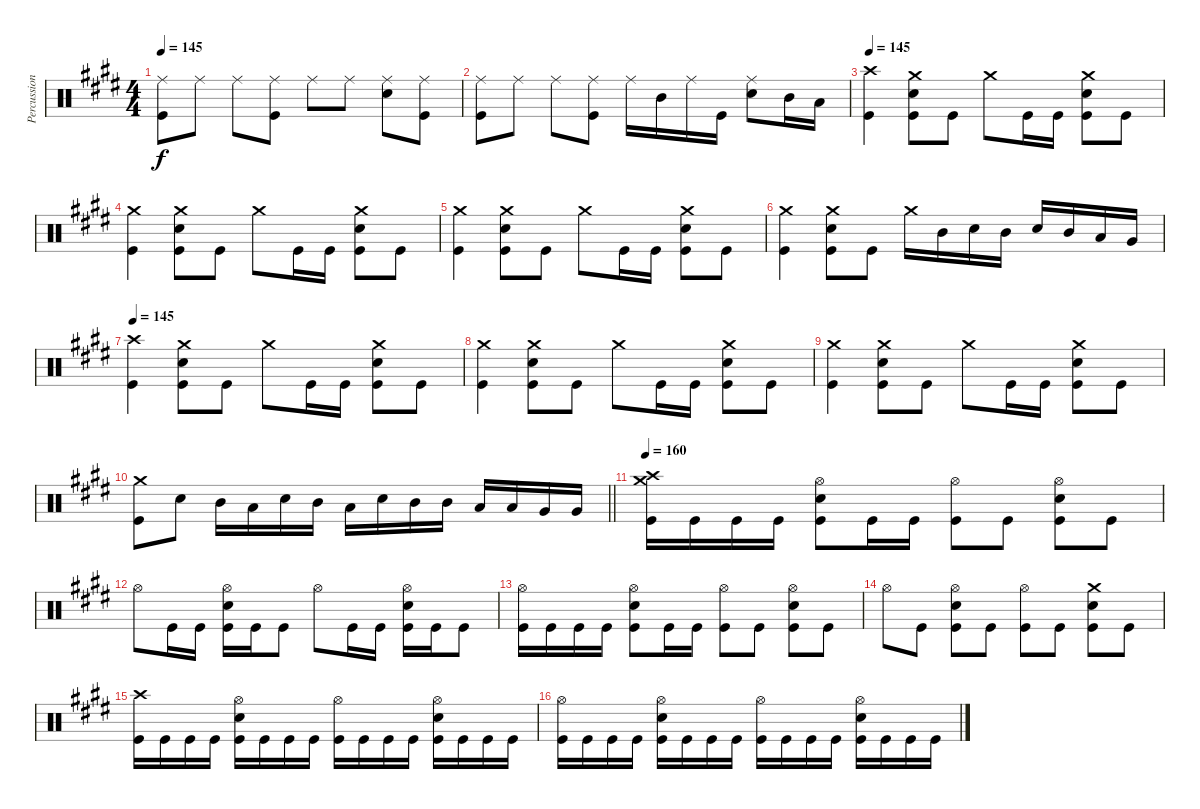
\track ("Percussion" "Percussion") {instrument percussion}
\staff {score}
\articulation defaults
\ts (4 4)
\tempo 145
\clef neutral
\ks e
("Ride (middle)" "Kick (hit)").8{dy f} "Ride (middle)".8 "Ride (middle)".8 ("Ride (middle)" "Kick (hit)").8 "Ride (middle)".8 "Ride (middle)".8 ("Ride (middle)" "Electric Snare (hit)").8 ("Ride (middle)" "Kick (hit)").8 |
("Ride (middle)" "Kick (hit)").8 "Ride (middle)".8 "Ride (middle)".8 ("Ride (middle)" "Kick (hit)").8 "Ride (middle)".16 "Mid Tom (hit)".16 "Ride (middle)".16 "Kick (hit)".16 ("Ride (middle)" "Electric Snare (hit)").8 "Mid Tom (hit)".16 "Low Tom (hit)".16 |
\tempo 145
("Crash high (hit)" "Kick (hit)").4 ("Crash medium (hit)" "Electric Snare (hit)" "Kick (hit)").8 "Kick (hit)".8 "Crash medium (hit)".8 "Kick (hit)".16 "Kick (hit)".16 ("Crash medium (hit)" "Electric Snare (hit)" "Kick (hit)").8 "Kick (hit)".8 |
("Crash medium (hit)" "Kick (hit)").4 ("Crash medium (hit)" "Electric Snare (hit)" "Kick (hit)").8 "Kick (hit)".8 "Crash medium (hit)".8 "Kick (hit)".16 "Kick (hit)".16 ("Crash medium (hit)" "Electric Snare (hit)" "Kick (hit)").8 "Kick (hit)".8 |
("Crash medium (hit)" "Kick (hit)").4 ("Crash medium (hit)" "Electric Snare (hit)" "Kick (hit)").8 "Kick (hit)".8 "Crash medium (hit)".8 "Kick (hit)".16 "Kick (hit)".16 ("Crash medium (hit)" "Electric Snare (hit)" "Kick (hit)").8 "Kick (hit)".8 |
("Crash medium (hit)" "Kick (hit)").4 ("Crash medium (hit)" "Electric Snare (hit)" "Kick (hit)").8 "Kick (hit)".8 "Crash medium (hit)".16 "Mid Tom (hit)".16 "Electric Snare (hit)".16 "Mid Tom (hit)".16 "Electric Snare (hit)".16 "Mid Tom (hit)".16 "Low Tom (hit)".16 "Very Low Tom (hit)".16 |
\tempo 145
("Crash high (hit)" "Kick (hit)").4 ("Crash medium (hit)" "Electric Snare (hit)" "Kick (hit)").8 "Kick (hit)".8 "Crash medium (hit)".8 "Kick (hit)".16 "Kick (hit)".16 ("Crash medium (hit)" "Electric Snare (hit)" "Kick (hit)").8 "Kick (hit)".8 |
("Crash medium (hit)" "Kick (hit)").4 ("Crash medium (hit)" "Electric Snare (hit)" "Kick (hit)").8 "Kick (hit)".8 "Crash medium (hit)".8 "Kick (hit)".16 "Kick (hit)".16 ("Crash medium (hit)" "Electric Snare (hit)" "Kick (hit)").8 "Kick (hit)".8 |
("Crash medium (hit)" "Kick (hit)").4 ("Crash medium (hit)" "Electric Snare (hit)" "Kick (hit)").8 "Kick (hit)".8 "Crash medium (hit)".8 "Kick (hit)".16 "Kick (hit)".16 ("Crash medium (hit)" "Electric Snare (hit)" "Kick (hit)").8 "Kick (hit)".8 |
\barLineRight lightlight
("Crash medium (hit)" "Kick (hit)").8 "Electric Snare (hit)".8 "Mid Tom (hit)".16 "Low Tom (hit)".16 "Electric Snare (hit)".16 "Mid Tom (hit)".16 "Low Tom (hit)".16 "Electric Snare (hit)".16 "Mid Tom (hit)".16 "Mid Tom (hit)".16 "Low Tom (hit)".16 "Low Tom (hit)".16 "Very Low Tom (hit)".16 "Very Low Tom (hit)".16 |
\section ("" "")
\tempo 160
("Crash high (hit)" "Crash medium (hit)" "Kick (hit)").16 "Kick (hit)".16 "Kick (hit)".16 "Kick (hit)".16 ("Hi-Hat (open)" "Electric Snare (hit)" "Kick (hit)").8 "Kick (hit)".16 "Kick (hit)".16 ("Hi-Hat (open)" "Kick (hit)").8 "Kick (hit)".8 ("Hi-Hat (open)" "Electric Snare (hit)" "Kick (hit)").8 "Kick (hit)".8 |
"Hi-Hat (open)".8 "Kick (hit)".16 "Kick (hit)".16 ("Hi-Hat (open)" "Electric Snare (hit)" "Kick (hit)").16 "Kick (hit)".16 "Kick (hit)".8 "Hi-Hat (open)".8 "Kick (hit)".16 "Kick (hit)".16 ("Hi-Hat (open)" "Electric Snare (hit)" "Kick (hit)").16 "Kick (hit)".16 "Kick (hit)".8 |
("Hi-Hat (open)" "Kick (hit)").16 "Kick (hit)".16 "Kick (hit)".16 "Kick (hit)".16 ("Hi-Hat (open)" "Electric Snare (hit)" "Kick (hit)").8 "Kick (hit)".16 "Kick (hit)".16 ("Hi-Hat (open)" "Kick (hit)").8 "Kick (hit)".8 ("Hi-Hat (open)" "Electric Snare (hit)" "Kick (hit)").8 "Kick (hit)".8 |
"Hi-Hat (open)".8 "Kick (hit)".8 ("Hi-Hat (open)" "Electric Snare (hit)" "Kick (hit)").8 "Kick (hit)".8 ("Hi-Hat (open)" "Kick (hit)").8 "Kick (hit)".8 ("Crash medium (hit)" "Electric Snare (hit)" "Kick (hit)").8 "Kick (hit)".8 |
("Crash high (hit)" "Kick (hit)").16 "Kick (hit)".16 "Kick (hit)".16 "Kick (hit)".16 ("Hi-Hat (open)" "Electric Snare (hit)" "Kick (hit)").16 "Kick (hit)".16 "Kick (hit)".16 "Kick (hit)".16 ("Hi-Hat (open)" "Kick (hit)").16 "Kick (hit)".16 "Kick (hit)".16 "Kick (hit)".16 ("Hi-Hat (open)" "Electric Snare (hit)" "Kick (hit)").16 "Kick (hit)".16 "Kick (hit)".16 "Kick (hit)".16 |
("Hi-Hat (open)" "Kick (hit)").16 "Kick (hit)".16 "Kick (hit)".16 "Kick (hit)".16 ("Hi-Hat (open)" "Electric Snare (hit)" "Kick (hit)").16 "Kick (hit)".16 "Kick (hit)".16 "Kick (hit)".16 ("Hi-Hat (open)" "Kick (hit)").16 "Kick (hit)".16 "Kick (hit)".16 "Kick (hit)".16 ("Hi-Hat (open)" "Electric Snare (hit)" "Kick (hit)").16 "Kick (hit)".16 "Kick (hit)".16 "Kick (hit)".16
